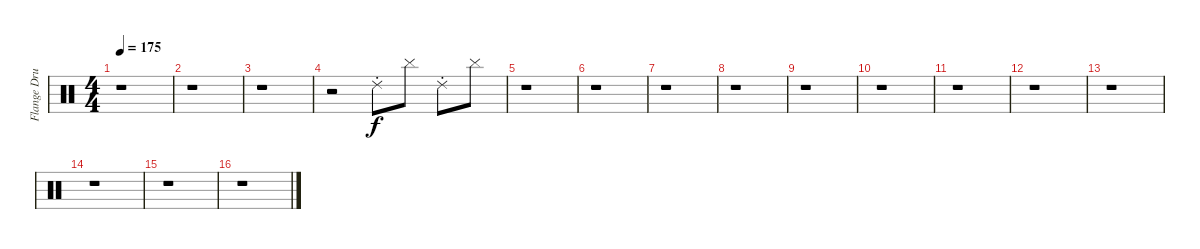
\track ("Flange Drums" "Flange Dru") {instrument percussion}
\staff {score}
\articulation defaults
\ts (4 4)
\tempo 175
\clef neutral
\ks c
r.1{dy f} |
r.1 |
r.1 |
r.2 "Ride (choke) 2".8 "Cymbal (hit)".8 "Ride (choke) 2".8 "Cymbal (hit)".8 |
r.1 |
r.1 |
r.1 |
r.1 |
r.1 |
r.1 |
r.1 |
r.1 |
r.1 |
r.1 |
r.1 |
r.1
